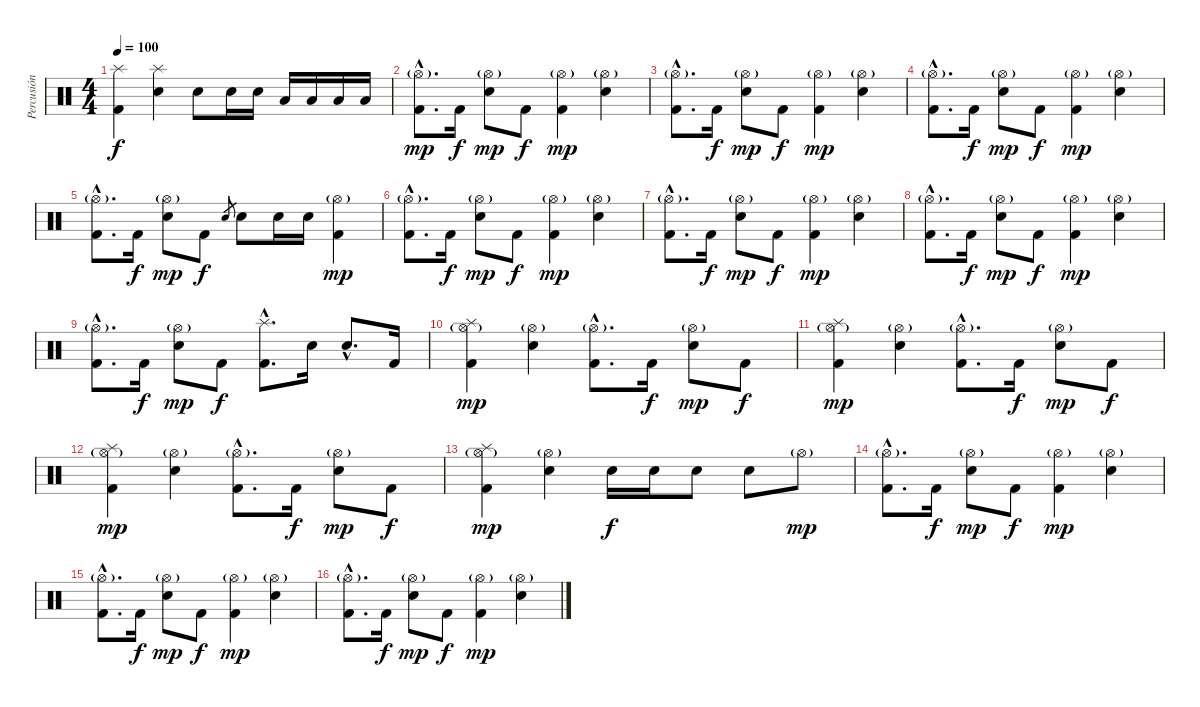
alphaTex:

\track ("Percusión" "Percusión") {instrument percussion}
\staff {score}
\articulation defaults
\ts (4 4)
\tempo 100
\clef neutral
\ks c
("Kick (hit) 2" "Splash (hit)").4{dy f} ("Electric Snare (hit)" "Splash (hit)").4 "Electric Snare (hit)".8 "Electric Snare (hit)".16 "Electric Snare (hit)".16 "Low Tom (hit)".16 "Low Tom (hit)".16 "Low Floor Tom (hit)".16 "Low Floor Tom (hit)".16 |
("Kick (hit) 2"{hac} "Hi-Hat (open)"{g hac}).8{d dy mp} "Kick (hit) 2".16{dy f} ("Electric Snare (hit)" "Hi-Hat (open)"{g}).8{dy mp} "Kick (hit) 2".8{dy f} ("Kick (hit) 2" "Hi-Hat (open)"{g}).4{dy mp} ("Electric Snare (hit)" "Hi-Hat (open)"{g}).4 |
("Kick (hit) 2"{hac} "Hi-Hat (open)"{g hac}).8{d} "Kick (hit) 2".16{dy f} ("Electric Snare (hit)" "Hi-Hat (open)"{g}).8{dy mp} "Kick (hit) 2".8{dy f} ("Kick (hit) 2" "Hi-Hat (open)"{g}).4{dy mp} ("Electric Snare (hit)" "Hi-Hat (open)"{g}).4 |
("Kick (hit) 2"{hac} "Hi-Hat (open)"{g hac}).8{d} "Kick (hit) 2".16{dy f} ("Electric Snare (hit)" "Hi-Hat (open)"{g}).8{dy mp} "Kick (hit) 2".8{dy f} ("Kick (hit) 2" "Hi-Hat (open)"{g}).4{dy mp} ("Electric Snare (hit)" "Hi-Hat (open)"{g}).4 |
("Kick (hit) 2"{hac} "Hi-Hat (open)"{g hac}).8{d} "Kick (hit) 2".16{dy f} ("Electric Snare (hit)" "Hi-Hat (open)"{g}).8{dy mp} "Kick (hit) 2".8{dy f} "Electric Snare (hit)".8{gr} "Electric Snare (hit)".8 "Electric Snare (hit)".16 "Electric Snare (hit)".16 ("Kick (hit) 2" "Hi-Hat (open)"{g}).4{dy mp} |
("Kick (hit) 2"{hac} "Hi-Hat (open)"{g hac}).8{d} "Kick (hit) 2".16{dy f} ("Electric Snare (hit)" "Hi-Hat (open)"{g}).8{dy mp} "Kick (hit) 2".8{dy f} ("Kick (hit) 2" "Hi-Hat (open)"{g}).4{dy mp} ("Electric Snare (hit)" "Hi-Hat (open)"{g}).4 |
("Kick (hit) 2"{hac} "Hi-Hat (open)"{g hac}).8{d} "Kick (hit) 2".16{dy f} ("Electric Snare (hit)" "Hi-Hat (open)"{g}).8{dy mp} "Kick (hit) 2".8{dy f} ("Kick (hit) 2" "Hi-Hat (open)"{g}).4{dy mp} ("Electric Snare (hit)" "Hi-Hat (open)"{g}).4 |
("Kick (hit) 2"{hac} "Hi-Hat (open)"{g hac}).8{d} "Kick (hit) 2".16{dy f} ("Electric Snare (hit)" "Hi-Hat (open)"{g}).8{dy mp} "Kick (hit) 2".8{dy f} ("Kick (hit) 2" "Hi-Hat (open)"{g}).4{dy mp} ("Electric Snare (hit)" "Hi-Hat (open)"{g}).4 |
("Kick (hit) 2"{hac} "Hi-Hat (open)"{g hac}).8{d} "Kick (hit) 2".16{dy f} ("Electric Snare (hit)" "Hi-Hat (open)"{g}).8{dy mp} "Kick (hit) 2".8{dy f} ("Kick (hit) 2"{hac} "Splash (hit)"{hac}).8{d} "Electric Snare (hit)".16 "Electric Snare (hit)"{hac}.8{d} "Kick (hit) 2".16 |
("Kick (hit) 2" "Splash (hit)" "Hi-Hat (open)"{g}).4{dy mp} ("Electric Snare (hit)" "Hi-Hat (open)"{g}).4 ("Kick (hit) 2"{hac} "Hi-Hat (open)"{g hac}).8{d} "Kick (hit) 2".16{dy f} ("Electric Snare (hit)" "Hi-Hat (open)"{g}).8{dy mp} "Kick (hit) 2".8{dy f} |
("Kick (hit) 2" "Splash (hit)" "Hi-Hat (open)"{g}).4{dy mp} ("Electric Snare (hit)" "Hi-Hat (open)"{g}).4 ("Kick (hit) 2"{hac} "Hi-Hat (open)"{g hac}).8{d} "Kick (hit) 2".16{dy f} ("Electric Snare (hit)" "Hi-Hat (open)"{g}).8{dy mp} "Kick (hit) 2".8{dy f} |
("Kick (hit) 2" "Splash (hit)" "Hi-Hat (open)"{g}).4{dy mp} ("Electric Snare (hit)" "Hi-Hat (open)"{g}).4 ("Kick (hit) 2"{hac} "Hi-Hat (open)"{g hac}).8{d} "Kick (hit) 2".16{dy f} ("Electric Snare (hit)" "Hi-Hat (open)"{g}).8{dy mp} "Kick (hit) 2".8{dy f} |
("Kick (hit) 2" "Splash (hit)" "Hi-Hat (open)"{g}).4{dy mp} ("Electric Snare (hit)" "Hi-Hat (open)"{g}).4 "Electric Snare (hit)".16{dy f} "Electric Snare (hit)".16 "Electric Snare (hit)".8 "Electric Snare (hit)".8 "Hi-Hat (open)"{g}.8{dy mp} |
("Kick (hit) 2"{hac} "Hi-Hat (open)"{g hac}).8{d} "Kick (hit) 2".16{dy f} ("Electric Snare (hit)" "Hi-Hat (open)"{g}).8{dy mp} "Kick (hit) 2".8{dy f} ("Kick (hit) 2" "Hi-Hat (open)"{g}).4{dy mp} ("Electric Snare (hit)" "Hi-Hat (open)"{g}).4 |
("Kick (hit) 2"{hac} "Hi-Hat (open)"{g hac}).8{d} "Kick (hit) 2".16{dy f} ("Electric Snare (hit)" "Hi-Hat (open)"{g}).8{dy mp} "Kick (hit) 2".8{dy f} ("Kick (hit) 2" "Hi-Hat (open)"{g}).4{dy mp} ("Electric Snare (hit)" "Hi-Hat (open)"{g}).4 |
("Kick (hit) 2"{hac} "Hi-Hat (open)"{g hac}).8{d} "Kick (hit) 2".16{dy f} ("Electric Snare (hit)" "Hi-Hat (open)"{g}).8{dy mp} "Kick (hit) 2".8{dy f} ("Kick (hit) 2" "Hi-Hat (open)"{g}).4{dy mp} ("Electric Snare (hit)" "Hi-Hat (open)"{g}).4
